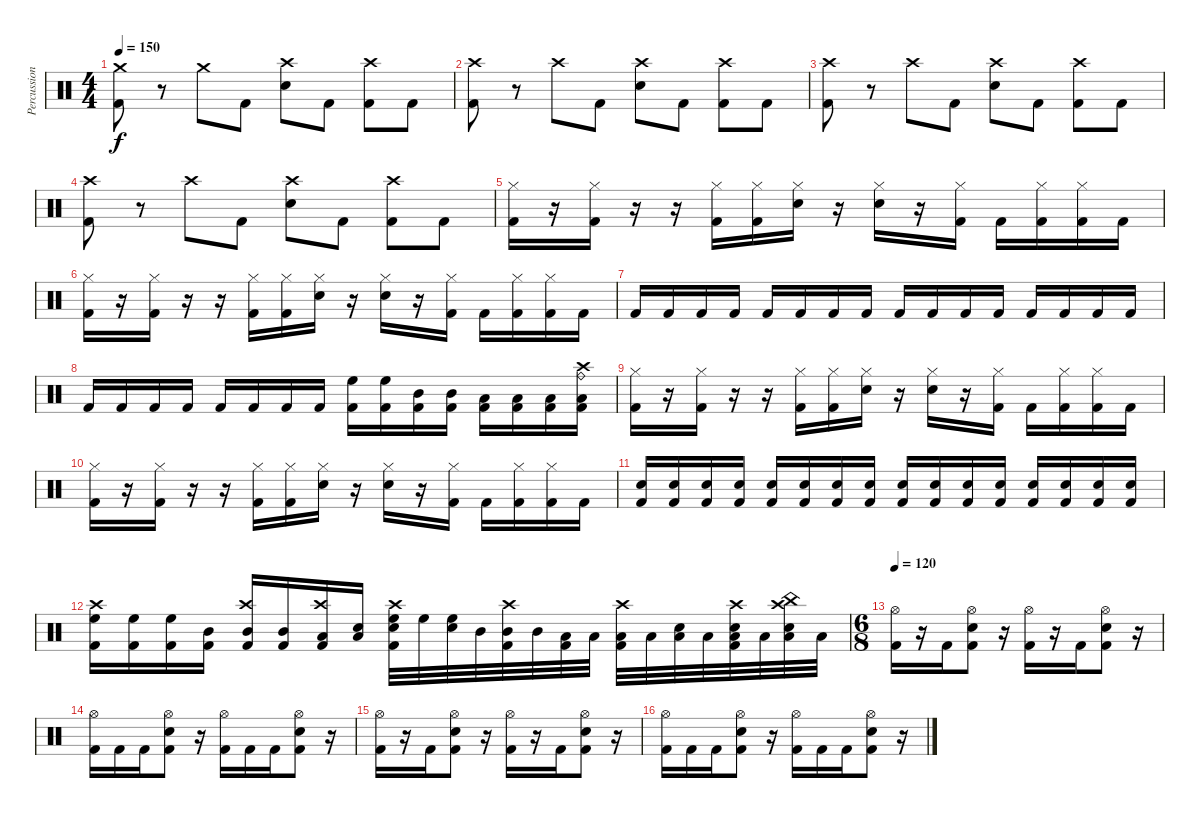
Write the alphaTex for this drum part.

\track ("Percussion" "Percussion") {instrument percussion}
\staff {score}
\articulation defaults
\ts (4 4)
\tempo 150
\clef neutral
\ks c
("Crash medium (hit)" "Kick (hit) 2").8{dy f} r.8 "Crash medium (hit)".8 "Kick (hit) 2".8 ("Crash high (hit)" "Snare (hit) 2").8 "Kick (hit) 2".8 ("Crash high (hit)" "Kick (hit) 2").8 "Kick (hit) 2".8 |
("Crash high (hit)" "Kick (hit) 2").8 r.8 "Crash high (hit)".8 "Kick (hit) 2".8 ("Crash high (hit)" "Snare (hit) 2").8 "Kick (hit) 2".8 ("Crash high (hit)" "Kick (hit) 2").8 "Kick (hit) 2".8 |
("Crash high (hit)" "Kick (hit) 2").8 r.8 "Crash high (hit)".8 "Kick (hit) 2".8 ("Crash high (hit)" "Snare (hit) 2").8 "Kick (hit) 2".8 ("Crash high (hit)" "Kick (hit) 2").8 "Kick (hit) 2".8 |
("Crash high (hit)" "Kick (hit) 2").8 r.8 "Crash high (hit)".8 "Kick (hit) 2".8 ("Crash high (hit)" "Snare (hit) 2").8 "Kick (hit) 2".8 ("Crash high (hit)" "Kick (hit) 2").8 "Kick (hit) 2".8 |
("Hi-Hat (closed)" "Kick (hit) 2").16 r.16 ("Hi-Hat (closed)" "Kick (hit) 2").16 r.16 r.16 ("Hi-Hat (closed)" "Kick (hit) 2").16 ("Hi-Hat (closed)" "Kick (hit) 2").16 ("Hi-Hat (closed)" "Electric Snare (hit)").16 r.16 ("Hi-Hat (closed)" "Electric Snare (hit)").16 r.16 ("Hi-Hat (closed)" "Kick (hit) 2").16 "Kick (hit) 2".16 ("Hi-Hat (closed)" "Kick (hit) 2").16 ("Hi-Hat (closed)" "Kick (hit) 2").16 "Kick (hit) 2".16 |
("Hi-Hat (closed)" "Kick (hit) 2").16 r.16 ("Hi-Hat (closed)" "Kick (hit) 2").16 r.16 r.16 ("Hi-Hat (closed)" "Kick (hit) 2").16 ("Hi-Hat (closed)" "Kick (hit) 2").16 ("Hi-Hat (closed)" "Electric Snare (hit)").16 r.16 ("Hi-Hat (closed)" "Electric Snare (hit)").16 r.16 ("Hi-Hat (closed)" "Kick (hit) 2").16 "Kick (hit) 2".16 ("Hi-Hat (closed)" "Kick (hit) 2").16 ("Hi-Hat (closed)" "Kick (hit) 2").16 "Kick (hit) 2".16 |
"Kick (hit) 2".16 "Kick (hit) 2".16 "Kick (hit) 2".16 "Kick (hit) 2".16 "Kick (hit) 2".16 "Kick (hit) 2".16 "Kick (hit) 2".16 "Kick (hit) 2".16 "Kick (hit) 2".16 "Kick (hit) 2".16 "Kick (hit) 2".16 "Kick (hit) 2".16 "Kick (hit) 2".16 "Kick (hit) 2".16 "Kick (hit) 2".16 "Kick (hit) 2".16 |
"Kick (hit) 2".16 "Kick (hit) 2".16 "Kick (hit) 2".16 "Kick (hit) 2".16 "Kick (hit) 2".16 "Kick (hit) 2".16 "Kick (hit) 2".16 "Kick (hit) 2".16 ("High Floor Tom (hit)" "Kick (hit) 2").16 ("High Floor Tom (hit)" "Kick (hit) 2").16 ("Mid Tom (hit)" "Kick (hit) 2").16 ("Mid Tom (hit)" "Kick (hit) 2").16 ("Low Tom (hit)" "Kick (hit) 2").16 ("Low Tom (hit)" "Kick (hit) 2").16 ("Low Floor Tom (hit)" "Kick (hit) 2").16 ("Crash high (hit)" "Low Floor Tom (hit)" "Ride (bell)" "Kick (hit) 2").16 |
("Hi-Hat (closed)" "Kick (hit) 2").16 r.16 ("Hi-Hat (closed)" "Kick (hit) 2").16 r.16 r.16 ("Hi-Hat (closed)" "Kick (hit) 2").16 ("Hi-Hat (closed)" "Kick (hit) 2").16 ("Hi-Hat (closed)" "Electric Snare (hit)").16 r.16 ("Hi-Hat (closed)" "Electric Snare (hit)").16 r.16 ("Hi-Hat (closed)" "Kick (hit) 2").16 "Kick (hit) 2".16 ("Hi-Hat (closed)" "Kick (hit) 2").16 ("Hi-Hat (closed)" "Kick (hit) 2").16 "Kick (hit) 2".16 |
("Hi-Hat (closed)" "Kick (hit) 2").16 r.16 ("Hi-Hat (closed)" "Kick (hit) 2").16 r.16 r.16 ("Hi-Hat (closed)" "Kick (hit) 2").16 ("Hi-Hat (closed)" "Kick (hit) 2").16 ("Hi-Hat (closed)" "Electric Snare (hit)").16 r.16 ("Hi-Hat (closed)" "Electric Snare (hit)").16 r.16 ("Hi-Hat (closed)" "Kick (hit) 2").16 "Kick (hit) 2".16 ("Hi-Hat (closed)" "Kick (hit) 2").16 ("Hi-Hat (closed)" "Kick (hit) 2").16 "Kick (hit) 2".16 |
("Electric Snare (hit)" "Kick (hit) 2").16 ("Electric Snare (hit)" "Kick (hit) 2").16 ("Electric Snare (hit)" "Kick (hit) 2").16 ("Electric Snare (hit)" "Kick (hit) 2").16 ("Electric Snare (hit)" "Kick (hit) 2").16 ("Electric Snare (hit)" "Kick (hit) 2").16 ("Electric Snare (hit)" "Kick (hit) 2").16 ("Electric Snare (hit)" "Kick (hit) 2").16 ("Electric Snare (hit)" "Kick (hit) 2").16 ("Electric Snare (hit)" "Kick (hit) 2").16 ("Electric Snare (hit)" "Kick (hit) 2").16 ("Electric Snare (hit)" "Kick (hit) 2").16 ("Electric Snare (hit)" "Kick (hit) 2").16 ("Electric Snare (hit)" "Kick (hit) 2").16 ("Electric Snare (hit)" "Kick (hit) 2").16 ("Electric Snare (hit)" "Kick (hit) 2").16 |
("Crash high (hit)" "High Floor Tom (hit)" "Kick (hit) 2").16 ("High Floor Tom (hit)" "Kick (hit) 2").16 ("High Floor Tom (hit)" "Kick (hit) 2").16 ("Mid Tom (hit)" "Kick (hit) 2").16 ("Crash high (hit)" "Mid Tom (hit)" "Kick (hit) 2").16 ("Mid Tom (hit)" "Kick (hit) 2").16 ("Crash high (hit)" "Low Floor Tom (hit)" "Kick (hit) 2").16 ("Low Floor Tom (hit)" "Snare (hit) 2").16 ("Crash high (hit)" "High Floor Tom (hit)" "Snare (hit) 2" "Kick (hit) 2").32 "High Floor Tom (hit)".32 ("High Floor Tom (hit)" "Snare (hit) 2").32 "Mid Tom (hit)".32 ("Crash high (hit)" "Mid Tom (hit)" "Kick (hit) 2").32 "Mid Tom (hit)".32 ("Low Tom (hit)" "Kick (hit) 2").32 "Low Tom (hit)".32 ("Crash high (hit)" "Low Tom (hit)" "Kick (hit) 2").32 "Low Floor Tom (hit)".32 ("Low Floor Tom (hit)" "Snare (hit) 2").32 "Low Floor Tom (hit)".32 ("Crash high (hit)" "Low Floor Tom (hit)" "Snare (hit) 2" "Kick (hit) 2").32 "Low Floor Tom (hit)".32 ("China (hit)" "Low Floor Tom (hit)" "Crash high (hit)" "Snare (hit) 2").32 "Low Floor Tom (hit)".32 |
\ts (6 8)
\tempo 120
("Hi-Hat (open)" "Kick (hit) 2").16 r.16 "Kick (hit) 2".16 ("Hi-Hat (open)" "Snare (hit) 2" "Kick (hit) 2").8 r.16 ("Hi-Hat (open)" "Kick (hit) 2").16 r.16 "Kick (hit) 2".16 ("Hi-Hat (open)" "Snare (hit) 2" "Kick (hit) 2").8 r.16 |
("Hi-Hat (open)" "Kick (hit) 2").16 "Kick (hit) 2".16 "Kick (hit) 2".16 ("Hi-Hat (open)" "Snare (hit) 2" "Kick (hit) 2").8 r.16 ("Hi-Hat (open)" "Kick (hit) 2").16 "Kick (hit) 2".16 "Kick (hit) 2".16 ("Hi-Hat (open)" "Snare (hit) 2" "Kick (hit) 2").8 r.16 |
("Hi-Hat (open)" "Kick (hit) 2").16 r.16 "Kick (hit) 2".16 ("Hi-Hat (open)" "Snare (hit) 2" "Kick (hit) 2").8 r.16 ("Hi-Hat (open)" "Kick (hit) 2").16 r.16 "Kick (hit) 2".16 ("Hi-Hat (open)" "Snare (hit) 2" "Kick (hit) 2").8 r.16 |
("Hi-Hat (open)" "Kick (hit) 2").16 "Kick (hit) 2".16 "Kick (hit) 2".16 ("Hi-Hat (open)" "Snare (hit) 2" "Kick (hit) 2").8 r.16 ("Hi-Hat (open)" "Kick (hit) 2").16 "Kick (hit) 2".16 "Kick (hit) 2".16 ("Hi-Hat (open)" "Snare (hit) 2" "Kick (hit) 2").8 r.16
